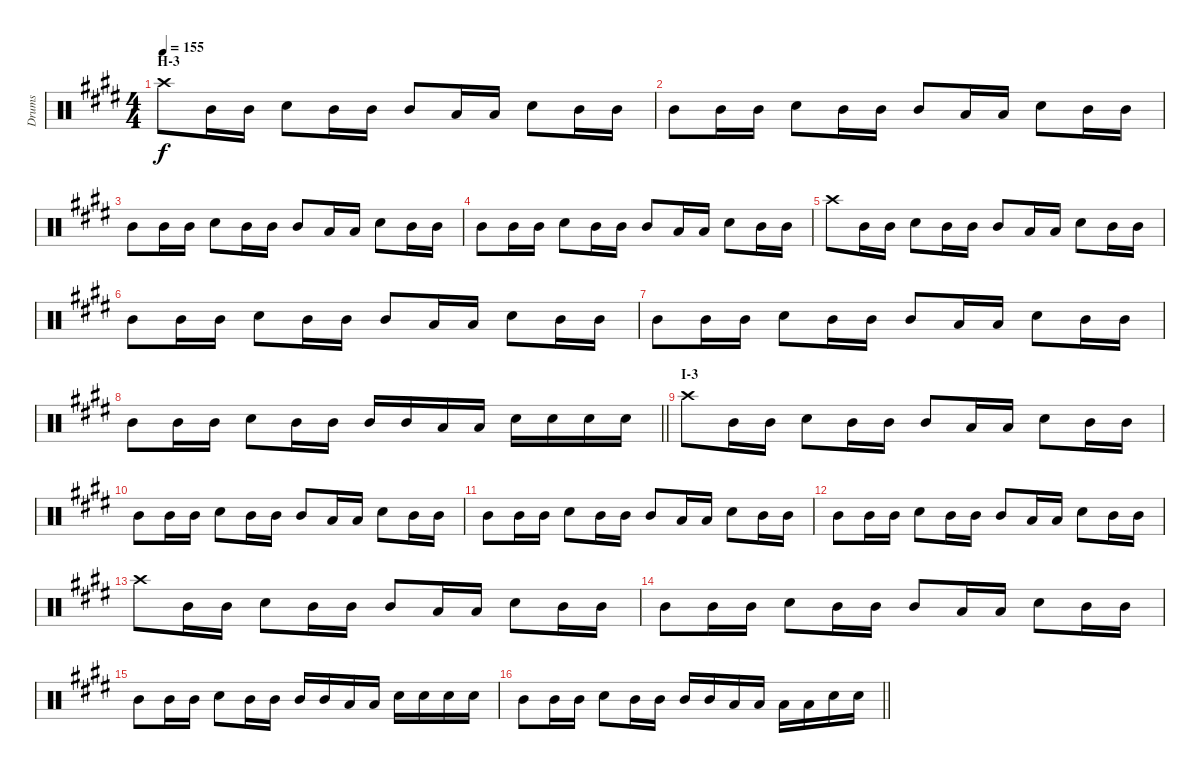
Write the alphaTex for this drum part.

\track ("Drums" "Drums") {instrument percussion}
\staff {score}
\articulation defaults
\ts (4 4)
\section ("" "H-3")
\tempo 155
\clef neutral
\ks e "Crash high (hit)".8{dy f} "Mid Tom (hit)".16 "Mid Tom (hit)".16 "Snare (hit) 2".8 "Mid Tom (hit)".16 "Mid Tom (hit)".16 "Mid Tom (hit)".8 "Low Tom (hit)".16 "Low Tom (hit)".16 "Snare (hit) 2".8 "Mid Tom (hit)".16 "Mid Tom (hit)".16
|
"Mid Tom (hit)".8 "Mid Tom (hit)".16 "Mid Tom (hit)".16 "Snare (hit) 2".8 "Mid Tom (hit)".16 "Mid Tom (hit)".16 "Mid Tom (hit)".8 "Low Tom (hit)".16 "Low Tom (hit)".16 "Snare (hit) 2".8 "Mid Tom (hit)".16 "Mid Tom (hit)".16 |
"Mid Tom (hit)".8 "Mid Tom (hit)".16 "Mid Tom (hit)".16 "Snare (hit) 2".8 "Mid Tom (hit)".16 "Mid Tom (hit)".16 "Mid Tom (hit)".8 "Low Tom (hit)".16 "Low Tom (hit)".16 "Snare (hit) 2".8 "Mid Tom (hit)".16 "Mid Tom (hit)".16 |
"Mid Tom (hit)".8 "Mid Tom (hit)".16 "Mid Tom (hit)".16 "Snare (hit) 2".8 "Mid Tom (hit)".16 "Mid Tom (hit)".16 "Mid Tom (hit)".8 "Low Tom (hit)".16 "Low Tom (hit)".16 "Snare (hit) 2".8 "Mid Tom (hit)".16 "Mid Tom (hit)".16 |
"Crash high (hit)".8 "Mid Tom (hit)".16 "Mid Tom (hit)".16 "Snare (hit) 2".8 "Mid Tom (hit)".16 "Mid Tom (hit)".16 "Mid Tom (hit)".8 "Low Tom (hit)".16 "Low Tom (hit)".16 "Snare (hit) 2".8 "Mid Tom (hit)".16 "Mid Tom (hit)".16 |
"Mid Tom (hit)".8 "Mid Tom (hit)".16 "Mid Tom (hit)".16 "Snare (hit) 2".8 "Mid Tom (hit)".16 "Mid Tom (hit)".16 "Mid Tom (hit)".8 "Low Tom (hit)".16 "Low Tom (hit)".16 "Snare (hit) 2".8 "Mid Tom (hit)".16 "Mid Tom (hit)".16 |
"Mid Tom (hit)".8 "Mid Tom (hit)".16 "Mid Tom (hit)".16 "Snare (hit) 2".8 "Mid Tom (hit)".16 "Mid Tom (hit)".16 "Mid Tom (hit)".8 "Low Tom (hit)".16 "Low Tom (hit)".16 "Snare (hit) 2".8 "Mid Tom (hit)".16 "Mid Tom (hit)".16 |
\barLineRight lightlight "Mid Tom (hit)".8 "Mid Tom (hit)".16 "Mid Tom (hit)".16 "Snare (hit) 2".8 "Mid Tom (hit)".16 "Mid Tom (hit)".16 "Mid Tom (hit)".16 "Mid Tom (hit)".16 "Low Tom (hit)".16 "Low Tom (hit)".16 "Snare (hit) 2".16 "Snare (hit) 2".16 "Snare (hit) 2".16 "Snare (hit) 2".16
|
\section ("" "I-3")
"Crash high (hit)".8 "Mid Tom (hit)".16 "Mid Tom (hit)".16 "Snare (hit) 2".8 "Mid Tom (hit)".16 "Mid Tom (hit)".16 "Mid Tom (hit)".8 "Low Tom (hit)".16 "Low Tom (hit)".16 "Snare (hit) 2".8 "Mid Tom (hit)".16 "Mid Tom (hit)".16 |
"Mid Tom (hit)".8 "Mid Tom (hit)".16 "Mid Tom (hit)".16 "Snare (hit) 2".8 "Mid Tom (hit)".16 "Mid Tom (hit)".16 "Mid Tom (hit)".8 "Low Tom (hit)".16 "Low Tom (hit)".16 "Snare (hit) 2".8 "Mid Tom (hit)".16 "Mid Tom (hit)".16 |
"Mid Tom (hit)".8 "Mid Tom (hit)".16 "Mid Tom (hit)".16 "Snare (hit) 2".8 "Mid Tom (hit)".16 "Mid Tom (hit)".16 "Mid Tom (hit)".8 "Low Tom (hit)".16 "Low Tom (hit)".16 "Snare (hit) 2".8 "Mid Tom (hit)".16 "Mid Tom (hit)".16 |
"Mid Tom (hit)".8 "Mid Tom (hit)".16 "Mid Tom (hit)".16 "Snare (hit) 2".8 "Mid Tom (hit)".16 "Mid Tom (hit)".16 "Mid Tom (hit)".8 "Low Tom (hit)".16 "Low Tom (hit)".16 "Snare (hit) 2".8 "Mid Tom (hit)".16 "Mid Tom (hit)".16 |
"Crash high (hit)".8 "Mid Tom (hit)".16 "Mid Tom (hit)".16 "Snare (hit) 2".8 "Mid Tom (hit)".16 "Mid Tom (hit)".16 "Mid Tom (hit)".8 "Low Tom (hit)".16 "Low Tom (hit)".16 "Snare (hit) 2".8 "Mid Tom (hit)".16 "Mid Tom (hit)".16 |
"Mid Tom (hit)".8 "Mid Tom (hit)".16 "Mid Tom (hit)".16 "Snare (hit) 2".8 "Mid Tom (hit)".16 "Mid Tom (hit)".16 "Mid Tom (hit)".8 "Low Tom (hit)".16 "Low Tom (hit)".16 "Snare (hit) 2".8 "Mid Tom (hit)".16 "Mid Tom (hit)".16 |
"Mid Tom (hit)".8 "Mid Tom (hit)".16 "Mid Tom (hit)".16 "Snare (hit) 2".8 "Mid Tom (hit)".16 "Mid Tom (hit)".16 "Mid Tom (hit)".16 "Mid Tom (hit)".16 "Low Tom (hit)".16 "Low Tom (hit)".16 "Snare (hit) 2".16 "Snare (hit) 2".16 "Snare (hit) 2".16 "Snare (hit) 2".16 |
\barLineRight lightlight "Mid Tom (hit)".8 "Mid Tom (hit)".16 "Mid Tom (hit)".16 "Snare (hit) 2".8 "Mid Tom (hit)".16 "Mid Tom (hit)".16 "Mid Tom (hit)".16 "Mid Tom (hit)".16 "Low Tom (hit)".16 "Low Tom (hit)".16 "Low Tom (hit)".16 "Low Tom (hit)".16 "Snare (hit) 2".16 "Snare (hit) 2".16
